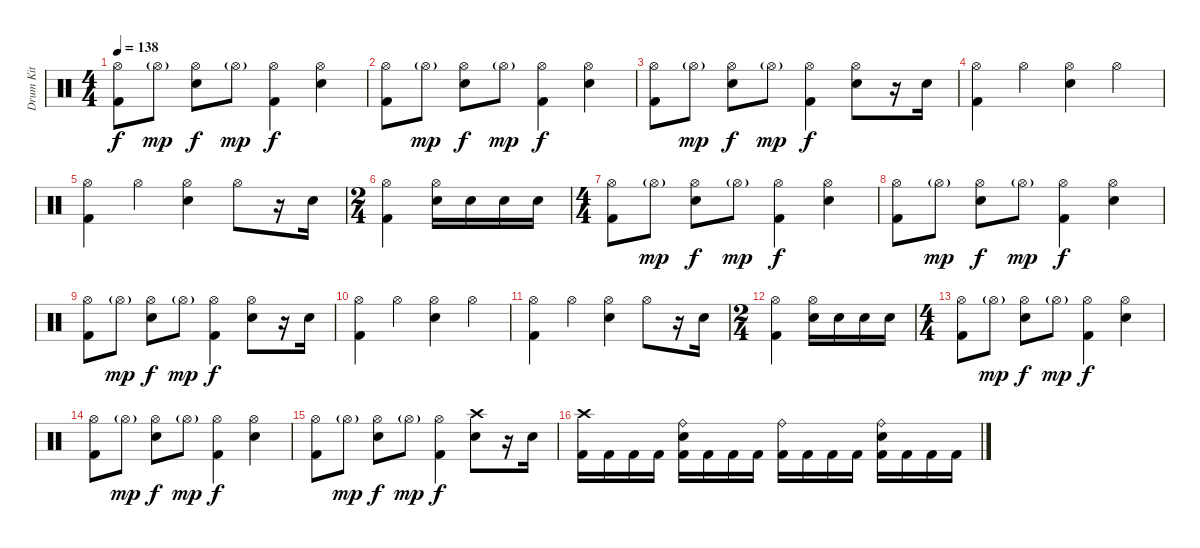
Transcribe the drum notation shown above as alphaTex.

\track ("Drum Kit" "Drum Kit") {instrument percussion}
\staff {score}
\articulation defaults
\ts (4 4)
\tempo 138
\clef neutral
\ks c
("Hi-Hat (open)" "Kick (hit) 2").8{dy f} "Hi-Hat (open)"{g}.8{dy mp} ("Hi-Hat (open)" "Snare (hit) 2").8{dy f} "Hi-Hat (open)"{g}.8{dy mp} ("Hi-Hat (open)" "Kick (hit) 2").4{dy f} ("Hi-Hat (open)" "Snare (hit) 2").4 |
("Hi-Hat (open)" "Kick (hit) 2").8 "Hi-Hat (open)"{g}.8{dy mp} ("Hi-Hat (open)" "Snare (hit) 2").8{dy f} "Hi-Hat (open)"{g}.8{dy mp} ("Hi-Hat (open)" "Kick (hit) 2").4{dy f} ("Hi-Hat (open)" "Snare (hit) 2").4 |
("Hi-Hat (open)" "Kick (hit) 2").8 "Hi-Hat (open)"{g}.8{dy mp} ("Hi-Hat (open)" "Snare (hit) 2").8{dy f} "Hi-Hat (open)"{g}.8{dy mp} ("Hi-Hat (open)" "Kick (hit) 2").4{dy f} ("Hi-Hat (open)" "Snare (hit) 2").8 r.16 "Snare (hit) 2".16 |
("Hi-Hat (open)" "Kick (hit) 2").4 "Hi-Hat (open)".4 ("Hi-Hat (open)" "Snare (hit) 2").4 "Hi-Hat (open)".4 |
("Hi-Hat (open)" "Kick (hit) 2").4 "Hi-Hat (open)".4 ("Hi-Hat (open)" "Snare (hit) 2").4 "Hi-Hat (open)".8 r.16 "Snare (hit) 2".16 |
\ts (2 4)
("Hi-Hat (open)" "Kick (hit) 2").4 ("Hi-Hat (open)" "Snare (hit) 2").16 "Snare (hit) 2".16 "Snare (hit) 2".16 "Snare (hit) 2".16 |
\ts (4 4)
("Hi-Hat (open)" "Kick (hit) 2").8 "Hi-Hat (open)"{g}.8{dy mp} ("Hi-Hat (open)" "Snare (hit) 2").8{dy f} "Hi-Hat (open)"{g}.8{dy mp} ("Hi-Hat (open)" "Kick (hit) 2").4{dy f} ("Hi-Hat (open)" "Snare (hit) 2").4 |
("Hi-Hat (open)" "Kick (hit) 2").8 "Hi-Hat (open)"{g}.8{dy mp} ("Hi-Hat (open)" "Snare (hit) 2").8{dy f} "Hi-Hat (open)"{g}.8{dy mp} ("Hi-Hat (open)" "Kick (hit) 2").4{dy f} ("Hi-Hat (open)" "Snare (hit) 2").4 |
("Hi-Hat (open)" "Kick (hit) 2").8 "Hi-Hat (open)"{g}.8{dy mp} ("Hi-Hat (open)" "Snare (hit) 2").8{dy f} "Hi-Hat (open)"{g}.8{dy mp} ("Hi-Hat (open)" "Kick (hit) 2").4{dy f} ("Hi-Hat (open)" "Snare (hit) 2").8 r.16 "Snare (hit) 2".16 |
("Hi-Hat (open)" "Kick (hit) 2").4 "Hi-Hat (open)".4 ("Hi-Hat (open)" "Snare (hit) 2").4 "Hi-Hat (open)".4 |
("Hi-Hat (open)" "Kick (hit) 2").4 "Hi-Hat (open)".4 ("Hi-Hat (open)" "Snare (hit) 2").4 "Hi-Hat (open)".8 r.16 "Snare (hit) 2".16 |
\ts (2 4)
("Hi-Hat (open)" "Kick (hit) 2").4 ("Hi-Hat (open)" "Snare (hit) 2").16 "Snare (hit) 2".16 "Snare (hit) 2".16 "Snare (hit) 2".16 |
\ts (4 4)
("Hi-Hat (open)" "Kick (hit) 2").8 "Hi-Hat (open)"{g}.8{dy mp} ("Hi-Hat (open)" "Snare (hit) 2").8{dy f} "Hi-Hat (open)"{g}.8{dy mp} ("Hi-Hat (open)" "Kick (hit) 2").4{dy f} ("Hi-Hat (open)" "Snare (hit) 2").4 |
("Hi-Hat (open)" "Kick (hit) 2").8 "Hi-Hat (open)"{g}.8{dy mp} ("Hi-Hat (open)" "Snare (hit) 2").8{dy f} "Hi-Hat (open)"{g}.8{dy mp} ("Hi-Hat (open)" "Kick (hit) 2").4{dy f} ("Hi-Hat (open)" "Snare (hit) 2").4 |
("Hi-Hat (open)" "Kick (hit) 2").8 "Hi-Hat (open)"{g}.8{dy mp} ("Hi-Hat (open)" "Snare (hit) 2").8{dy f} "Hi-Hat (open)"{g}.8{dy mp} ("Hi-Hat (open)" "Kick (hit) 2").4{dy f} ("Crash high (hit)" "Snare (hit) 2").8 r.16 "Snare (hit) 2".16 |
("Crash high (hit)" "Kick (hit) 2").16 "Kick (hit) 2".16 "Kick (hit) 2".16 "Kick (hit) 2".16 ("Ride (bell)" "Snare (hit) 2" "Kick (hit) 2").16 "Kick (hit) 2".16 "Kick (hit) 2".16 "Kick (hit) 2".16 ("Ride (bell)" "Kick (hit) 2").16 "Kick (hit) 2".16 "Kick (hit) 2".16 "Kick (hit) 2".16 ("Ride (bell)" "Snare (hit) 2" "Kick (hit) 2").16 "Kick (hit) 2".16 "Kick (hit) 2".16 "Kick (hit) 2".16
